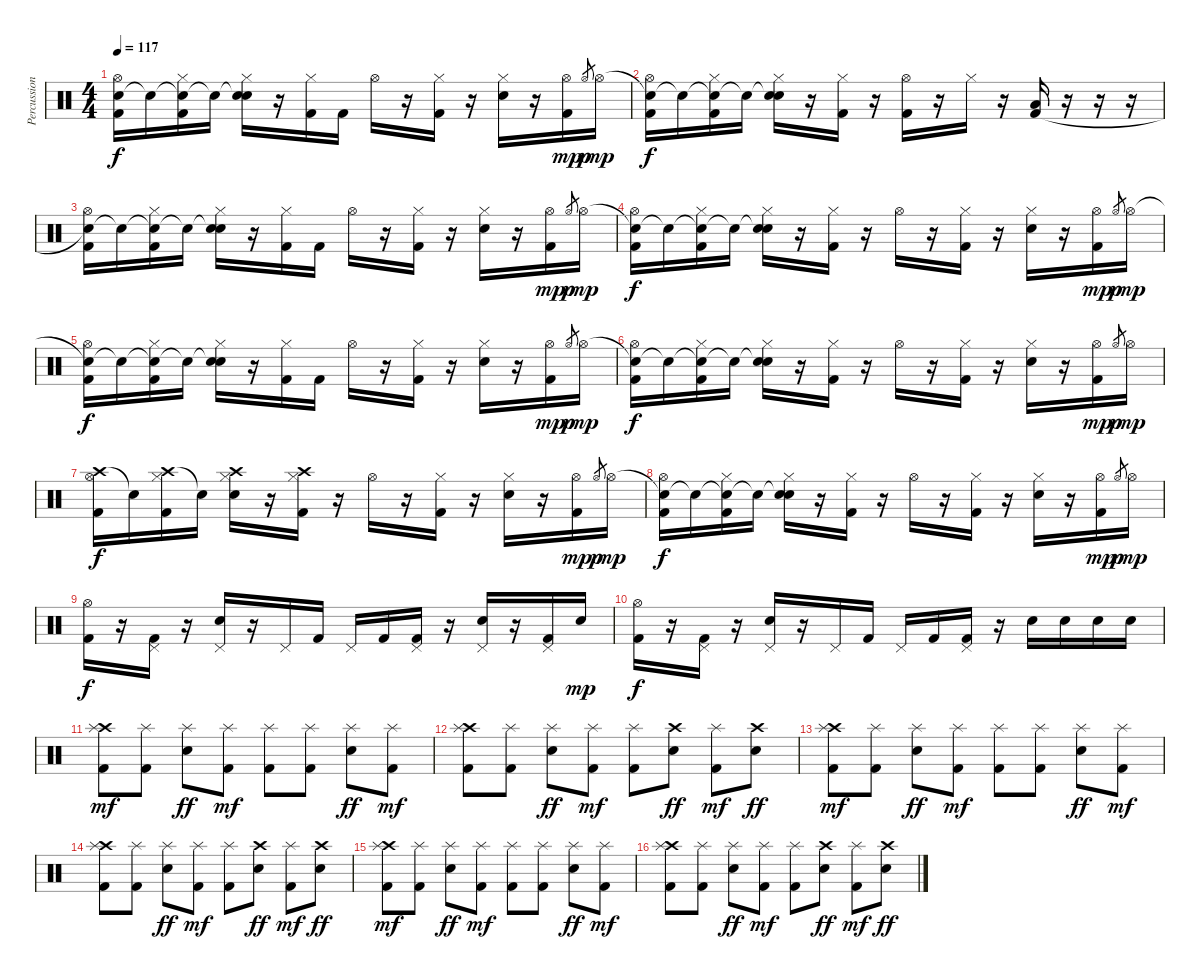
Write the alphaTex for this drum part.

\track ("Percussion" "Percussion") {instrument percussion}
\staff {score}
\articulation defaults
\ts (4 4)
\tempo 117
\clef neutral
\ks c
("Snare (hit)"{t} "Hi-Hat (open)" "Kick (hit) 2").16{dy f} "Snare (hit)"{t}.16 ("Snare (hit)"{t} "Hi-Hat (closed)" "Kick (hit) 2").16 "Snare (hit)"{t}.16 ("Snare (hit)"{t} "Hi-Hat (closed)" "Electric Snare (hit)").16 r.16 ("Hi-Hat (closed)" "Kick (hit) 2").16 "Kick (hit) 2".16 "Hi-Hat (open)".16 r.16 ("Hi-Hat (closed)" "Kick (hit) 2").16 r.16 ("Hi-Hat (closed)" "Electric Snare (hit)").16 r.16 ("Hi-Hat (open)" "Kick (hit) 2").16{dy mp} "Hi-Hat (open)".8{gr dy p} "Hi-Hat (open)".16{dy mp} |
("Snare (hit)"{t} "Hi-Hat (open)" "Kick (hit) 2").16{dy f} "Snare (hit)"{t}.16 ("Snare (hit)"{t} "Hi-Hat (closed)" "Kick (hit) 2").16 "Snare (hit)"{t}.16 ("Snare (hit)"{t} "Hi-Hat (closed)" "Electric Snare (hit)").16 r.16 ("Hi-Hat (closed)" "Kick (hit) 2").16 r.16 ("Hi-Hat (open)" "Kick (hit) 2").16 r.16 "Hi-Hat (closed)".16 r.16 ("Kick (hit) 2" "Low Floor Tom (hit)").16 r.16 r.16 r.16 |
("Snare (hit)"{t} "Hi-Hat (open)" "Kick (hit) 2").16 "Snare (hit)"{t}.16 ("Snare (hit)"{t} "Hi-Hat (closed)" "Kick (hit) 2").16 "Snare (hit)"{t}.16 ("Snare (hit)"{t} "Hi-Hat (closed)" "Electric Snare (hit)").16 r.16 ("Hi-Hat (closed)" "Kick (hit) 2").16 "Kick (hit) 2".16 "Hi-Hat (open)".16 r.16 ("Hi-Hat (closed)" "Kick (hit) 2").16 r.16 ("Hi-Hat (closed)" "Electric Snare (hit)").16 r.16 ("Hi-Hat (open)" "Kick (hit) 2").16{dy mp} "Hi-Hat (open)".8{gr dy p} "Hi-Hat (open)".16{dy mp} |
("Snare (hit)"{t} "Hi-Hat (open)" "Kick (hit) 2").16{dy f} "Snare (hit)"{t}.16 ("Snare (hit)"{t} "Hi-Hat (closed)" "Kick (hit) 2").16 "Snare (hit)"{t}.16 ("Snare (hit)"{t} "Hi-Hat (closed)" "Electric Snare (hit)").16 r.16 ("Hi-Hat (closed)" "Kick (hit) 2").16 r.16 "Hi-Hat (open)".16 r.16 ("Hi-Hat (closed)" "Kick (hit) 2").16 r.16 ("Hi-Hat (closed)" "Electric Snare (hit)").16 r.16 ("Hi-Hat (open)" "Kick (hit) 2").16{dy mp} "Hi-Hat (open)".8{gr dy p} "Hi-Hat (open)".16{dy mp} |
("Snare (hit)"{t} "Hi-Hat (open)" "Kick (hit) 2").16{dy f} "Snare (hit)"{t}.16 ("Snare (hit)"{t} "Hi-Hat (closed)" "Kick (hit) 2").16 "Snare (hit)"{t}.16 ("Snare (hit)"{t} "Hi-Hat (closed)" "Electric Snare (hit)").16 r.16 ("Hi-Hat (closed)" "Kick (hit) 2").16 "Kick (hit) 2".16 "Hi-Hat (open)".16 r.16 ("Hi-Hat (closed)" "Kick (hit) 2").16 r.16 ("Hi-Hat (closed)" "Electric Snare (hit)").16 r.16 ("Hi-Hat (open)" "Kick (hit) 2").16{dy mp} "Hi-Hat (open)".8{gr dy p} "Hi-Hat (open)".16{dy mp} |
("Snare (hit)"{t} "Hi-Hat (open)" "Kick (hit) 2").16{dy f} "Snare (hit)"{t}.16 ("Snare (hit)"{t} "Hi-Hat (closed)" "Kick (hit) 2").16 "Snare (hit)"{t}.16 ("Snare (hit)"{t} "Hi-Hat (closed)" "Electric Snare (hit)").16 r.16 ("Hi-Hat (closed)" "Kick (hit) 2").16 r.16 "Hi-Hat (open)".16 r.16 ("Hi-Hat (closed)" "Kick (hit) 2").16 r.16 ("Hi-Hat (closed)" "Electric Snare (hit)").16 r.16 ("Hi-Hat (open)" "Kick (hit) 2").16{dy mp} "Hi-Hat (open)".8{gr dy p} "Hi-Hat (open)".16{dy mp} |
("Crash high (hit)" "Hi-Hat (open)" "Kick (hit) 2").16{dy f} "Snare (hit)"{t}.16 ("Crash high (hit)" "Hi-Hat (closed)" "Kick (hit) 2").16 "Snare (hit)"{t}.16 ("Crash high (hit)" "Hi-Hat (closed)" "Electric Snare (hit)").16 r.16 ("Crash high (hit)" "Hi-Hat (closed)" "Kick (hit) 2").16 r.16 "Hi-Hat (open)".16 r.16 ("Hi-Hat (closed)" "Kick (hit) 2").16 r.16 ("Hi-Hat (closed)" "Electric Snare (hit)").16 r.16 ("Hi-Hat (open)" "Kick (hit) 2").16{dy mp} "Hi-Hat (open)".8{gr dy p} "Hi-Hat (open)".16{dy mp} |
("Snare (hit)"{t} "Hi-Hat (open)" "Kick (hit) 2").16{dy f} "Snare (hit)"{t}.16 ("Snare (hit)"{t} "Hi-Hat (closed)" "Kick (hit) 2").16 "Snare (hit)"{t}.16 ("Snare (hit)"{t} "Hi-Hat (closed)" "Electric Snare (hit)").16 r.16 ("Hi-Hat (closed)" "Kick (hit) 2").16 r.16 "Hi-Hat (open)".16 r.16 ("Hi-Hat (closed)" "Kick (hit) 2").16 r.16 ("Hi-Hat (closed)" "Electric Snare (hit)").16 r.16 ("Hi-Hat (open)" "Kick (hit) 2").16{dy mp} "Hi-Hat (open)".8{gr dy p} "Hi-Hat (open)".16{dy mp} |
("Hi-Hat (open)" "Kick (hit) 2").16{dy f} r.16 ("Pedal Hi-Hat (hit)" "Kick (hit) 2").16 r.16 ("Pedal Hi-Hat (hit)" "Electric Snare (hit)").16 r.16 "Pedal Hi-Hat (hit)".16 "Kick (hit) 2".16 "Pedal Hi-Hat (hit)".16 "Kick (hit) 2".16 ("Pedal Hi-Hat (hit)" "Kick (hit) 2").16 r.16 ("Pedal Hi-Hat (hit)" "Electric Snare (hit)").16 r.16 ("Pedal Hi-Hat (hit)" "Kick (hit) 2").16 "Electric Snare (hit)".16{dy mp} |
("Hi-Hat (open)" "Kick (hit) 2").16{dy f} r.16 ("Pedal Hi-Hat (hit)" "Kick (hit) 2").16 r.16 ("Pedal Hi-Hat (hit)" "Electric Snare (hit)").16 r.16 "Pedal Hi-Hat (hit)".16 "Kick (hit) 2".16 "Pedal Hi-Hat (hit)".16 "Kick (hit) 2".16 ("Pedal Hi-Hat (hit)" "Kick (hit) 2").16 r.16 "Electric Snare (hit)".16 "Electric Snare (hit)".16 "Electric Snare (hit)".16 "Electric Snare (hit)".16 |
("Crash high (hit)" "Splash (hit)" "Kick (hit) 2").8{dy mf} ("Splash (hit)" "Kick (hit) 2").8 ("Splash (hit)" "Electric Snare (hit)").8{dy ff} ("Splash (hit)" "Kick (hit) 2").8{dy mf} ("Splash (hit)" "Kick (hit) 2").8 ("Splash (hit)" "Kick (hit) 2").8 ("Splash (hit)" "Electric Snare (hit)").8{dy ff} ("Splash (hit)" "Kick (hit) 2").8{dy mf} |
("Crash high (hit)" "Splash (hit)" "Kick (hit) 2").8 ("Splash (hit)" "Kick (hit) 2").8 ("Splash (hit)" "Electric Snare (hit)").8{dy ff} ("Splash (hit)" "Kick (hit) 2").8{dy mf} ("Splash (hit)" "Kick (hit) 2").8 ("Crash high (hit)" "Electric Snare (hit)").8{dy ff} ("Splash (hit)" "Kick (hit) 2").8{dy mf} ("Crash high (hit)" "Electric Snare (hit)").8{dy ff} |
("Crash high (hit)" "Splash (hit)" "Kick (hit) 2").8{dy mf} ("Splash (hit)" "Kick (hit) 2").8 ("Splash (hit)" "Electric Snare (hit)").8{dy ff} ("Splash (hit)" "Kick (hit) 2").8{dy mf} ("Splash (hit)" "Kick (hit) 2").8 ("Splash (hit)" "Kick (hit) 2").8 ("Splash (hit)" "Electric Snare (hit)").8{dy ff} ("Splash (hit)" "Kick (hit) 2").8{dy mf} |
("Crash high (hit)" "Splash (hit)" "Kick (hit) 2").8 ("Splash (hit)" "Kick (hit) 2").8 ("Splash (hit)" "Electric Snare (hit)").8{dy ff} ("Splash (hit)" "Kick (hit) 2").8{dy mf} ("Splash (hit)" "Kick (hit) 2").8 ("Crash high (hit)" "Electric Snare (hit)").8{dy ff} ("Splash (hit)" "Kick (hit) 2").8{dy mf} ("Crash high (hit)" "Electric Snare (hit)").8{dy ff} |
("Crash high (hit)" "Splash (hit)" "Kick (hit) 2").8{dy mf} ("Splash (hit)" "Kick (hit) 2").8 ("Splash (hit)" "Electric Snare (hit)").8{dy ff} ("Splash (hit)" "Kick (hit) 2").8{dy mf} ("Splash (hit)" "Kick (hit) 2").8 ("Splash (hit)" "Kick (hit) 2").8 ("Splash (hit)" "Electric Snare (hit)").8{dy ff} ("Splash (hit)" "Kick (hit) 2").8{dy mf} |
("Crash high (hit)" "Splash (hit)" "Kick (hit) 2").8 ("Splash (hit)" "Kick (hit) 2").8 ("Splash (hit)" "Electric Snare (hit)").8{dy ff} ("Splash (hit)" "Kick (hit) 2").8{dy mf} ("Splash (hit)" "Kick (hit) 2").8 ("Crash high (hit)" "Electric Snare (hit)").8{dy ff} ("Splash (hit)" "Kick (hit) 2").8{dy mf} ("Crash high (hit)" "Electric Snare (hit)").8{dy ff}
